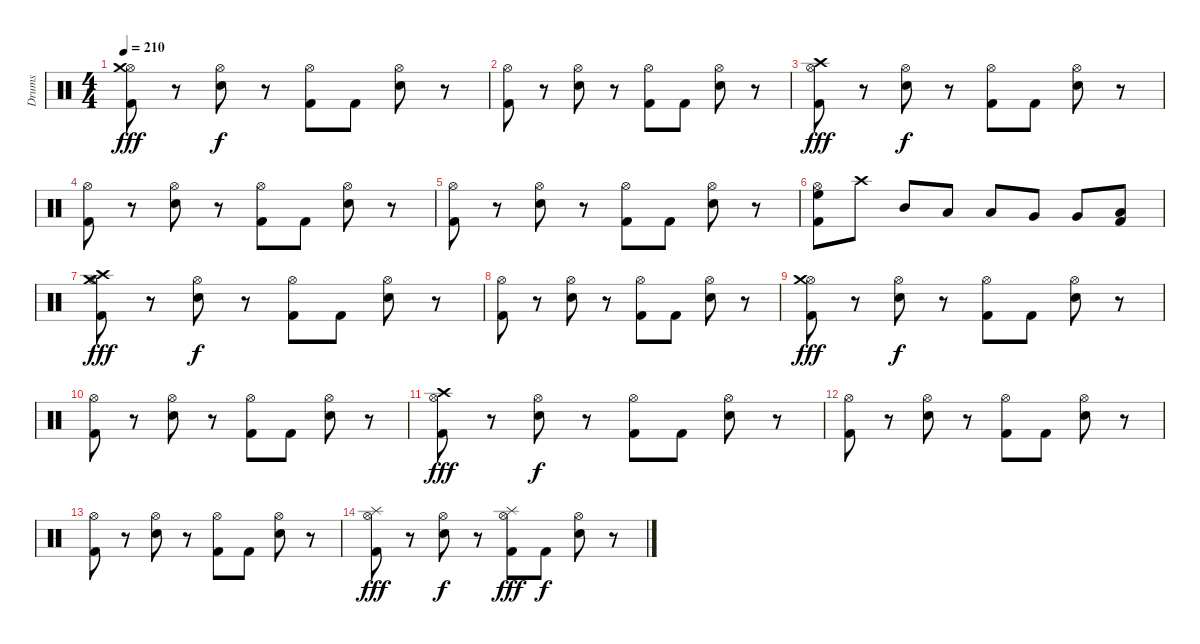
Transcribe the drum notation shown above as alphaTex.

\track ("Drums" "Drums") {instrument percussion}
\staff {score}
\articulation defaults
\ts (4 4)
\tempo 210
\clef neutral
\ks c
("Hi-Hat (open)" "Crash medium (hit)" "Kick (hit) 2").8{dy fff} r.8 ("Hi-Hat (open)" "Electric Snare (hit)").8{dy f} r.8 ("Hi-Hat (open)" "Kick (hit) 2").8 "Kick (hit) 2".8 ("Hi-Hat (open)" "Electric Snare (hit)").8 r.8 |
("Hi-Hat (open)" "Kick (hit) 2").8 r.8 ("Hi-Hat (open)" "Electric Snare (hit)").8 r.8 ("Hi-Hat (open)" "Kick (hit) 2").8 "Kick (hit) 2".8 ("Hi-Hat (open)" "Electric Snare (hit)").8 r.8 |
("Hi-Hat (open)" "Crash high (hit)" "Kick (hit) 2").8{dy fff} r.8 ("Hi-Hat (open)" "Electric Snare (hit)").8{dy f} r.8 ("Hi-Hat (open)" "Kick (hit) 2").8 "Kick (hit) 2".8 ("Hi-Hat (open)" "Electric Snare (hit)").8 r.8 |
("Hi-Hat (open)" "Kick (hit) 2").8 r.8 ("Hi-Hat (open)" "Electric Snare (hit)").8 r.8 ("Hi-Hat (open)" "Kick (hit) 2").8 "Kick (hit) 2".8 ("Hi-Hat (open)" "Electric Snare (hit)").8 r.8 |
("Hi-Hat (open)" "Kick (hit) 2").8 r.8 ("Hi-Hat (open)" "Electric Snare (hit)").8 r.8 ("Hi-Hat (open)" "Kick (hit) 2").8 "Kick (hit) 2".8 ("Hi-Hat (open)" "Electric Snare (hit)").8 r.8 |
("High Floor Tom (hit)" "Hi-Hat (open)" "Kick (hit) 2").8 "Crash high (hit)".8 "Mid Tom (hit)".8 "Low Tom (hit)".8 "Low Tom (hit)".8 "Very Low Tom (hit)".8 "Very Low Tom (hit)".8 ("Low Floor Tom (hit)" "Kick (hit) 2").8 |
("Hi-Hat (open)" "Crash high (hit)" "Crash medium (hit)" "Kick (hit) 2").8{dy fff} r.8 ("Hi-Hat (open)" "Electric Snare (hit)").8{dy f} r.8 ("Hi-Hat (open)" "Kick (hit) 2").8 "Kick (hit) 2".8 ("Hi-Hat (open)" "Electric Snare (hit)").8 r.8 |
("Hi-Hat (open)" "Kick (hit) 2").8 r.8 ("Hi-Hat (open)" "Electric Snare (hit)").8 r.8 ("Hi-Hat (open)" "Kick (hit) 2").8 "Kick (hit) 2".8 ("Hi-Hat (open)" "Electric Snare (hit)").8 r.8 |
("Hi-Hat (open)" "Crash medium (hit)" "Kick (hit) 2").8{dy fff} r.8 ("Hi-Hat (open)" "Electric Snare (hit)").8{dy f} r.8 ("Hi-Hat (open)" "Kick (hit) 2").8 "Kick (hit) 2".8 ("Hi-Hat (open)" "Electric Snare (hit)").8 r.8 |
("Hi-Hat (open)" "Kick (hit) 2").8 r.8 ("Hi-Hat (open)" "Electric Snare (hit)").8 r.8 ("Hi-Hat (open)" "Kick (hit) 2").8 "Kick (hit) 2".8 ("Hi-Hat (open)" "Electric Snare (hit)").8 r.8 |
("Hi-Hat (open)" "Crash high (hit)" "Kick (hit) 2").8{dy fff} r.8 ("Hi-Hat (open)" "Electric Snare (hit)").8{dy f} r.8 ("Hi-Hat (open)" "Kick (hit) 2").8 "Kick (hit) 2".8 ("Hi-Hat (open)" "Electric Snare (hit)").8 r.8 |
("Hi-Hat (open)" "Kick (hit) 2").8 r.8 ("Hi-Hat (open)" "Electric Snare (hit)").8 r.8 ("Hi-Hat (open)" "Kick (hit) 2").8 "Kick (hit) 2".8 ("Hi-Hat (open)" "Electric Snare (hit)").8 r.8 |
("Hi-Hat (open)" "Kick (hit) 2").8 r.8 ("Hi-Hat (open)" "Electric Snare (hit)").8 r.8 ("Hi-Hat (open)" "Kick (hit) 2").8 "Kick (hit) 2".8 ("Hi-Hat (open)" "Electric Snare (hit)").8 r.8 |
("Hi-Hat (open)" "Splash (hit)" "Kick (hit) 2").8{dy fff} r.8 ("Hi-Hat (open)" "Electric Snare (hit)").8{dy f} r.8 ("Hi-Hat (open)" "Splash (hit)" "Kick (hit) 2").8{dy fff} "Kick (hit) 2".8{dy f} ("Hi-Hat (open)" "Electric Snare (hit)").8 r.8
